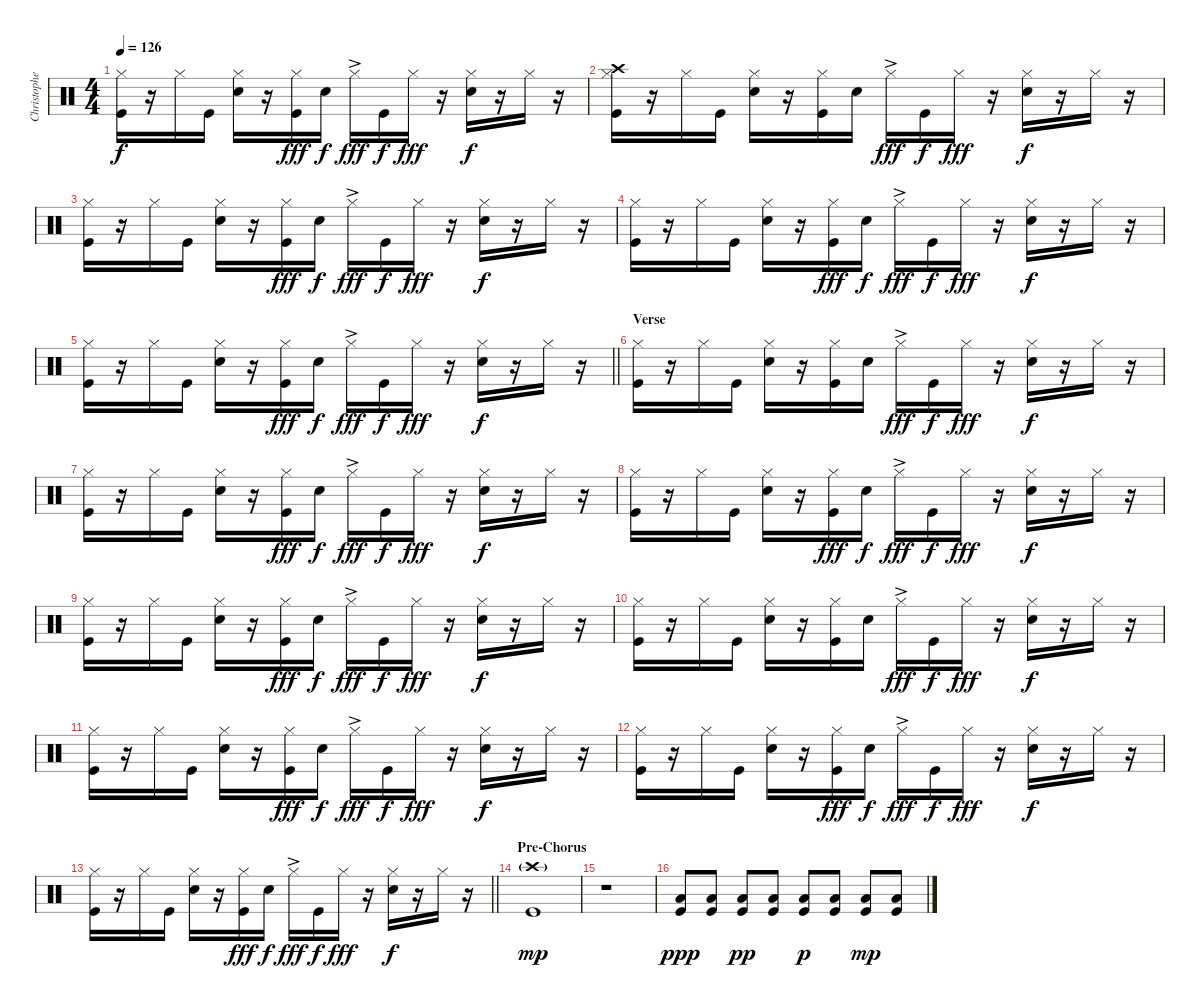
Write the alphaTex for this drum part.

\track ("Christopher - Drums" "Christophe") {instrument percussion}
\staff {score}
\articulation defaults
\ts (4 4)
\tempo 126
\clef neutral
\ks c
("Hi-Hat (closed)" "Kick (hit)").16{dy f} r.16 "Hi-Hat (closed)".16 "Kick (hit)".16 ("Hi-Hat (closed)" "Snare (hit) 2").16 r.16 ("Hi-Hat (closed)" "Kick (hit)").16{dy fff} "Snare (hit) 2".16{dy f} "Hi-Hat (closed)"{ac}.16{dy fff} "Kick (hit)".16{dy f} "Hi-Hat (closed)".16{dy fff} r.16 ("Hi-Hat (closed)" "Snare (hit) 2").16{dy f} r.16 "Hi-Hat (closed)".16 r.16 |
("Crash high (hit)" "Hi-Hat (closed)" "Kick (hit)").16 r.16 "Hi-Hat (closed)".16 "Kick (hit)".16 ("Hi-Hat (closed)" "Snare (hit) 2").16 r.16 ("Hi-Hat (closed)" "Kick (hit)").16 "Snare (hit) 2".16 "Hi-Hat (closed)"{ac}.16{dy fff} "Kick (hit)".16{dy f} "Hi-Hat (closed)".16{dy fff} r.16 ("Hi-Hat (closed)" "Snare (hit) 2").16{dy f} r.16 "Hi-Hat (closed)".16 r.16 |
("Hi-Hat (closed)" "Kick (hit)").16 r.16 "Hi-Hat (closed)".16 "Kick (hit)".16 ("Hi-Hat (closed)" "Snare (hit) 2").16 r.16 ("Hi-Hat (closed)" "Kick (hit)").16{dy fff} "Snare (hit) 2".16{dy f} "Hi-Hat (closed)"{ac}.16{dy fff} "Kick (hit)".16{dy f} "Hi-Hat (closed)".16{dy fff} r.16 ("Hi-Hat (closed)" "Snare (hit) 2").16{dy f} r.16 "Hi-Hat (closed)".16 r.16 |
("Hi-Hat (closed)" "Kick (hit)").16 r.16 "Hi-Hat (closed)".16 "Kick (hit)".16 ("Hi-Hat (closed)" "Snare (hit) 2").16 r.16 ("Hi-Hat (closed)" "Kick (hit)").16{dy fff} "Snare (hit) 2".16{dy f} "Hi-Hat (closed)"{ac}.16{dy fff} "Kick (hit)".16{dy f} "Hi-Hat (closed)".16{dy fff} r.16 ("Hi-Hat (closed)" "Snare (hit) 2").16{dy f} r.16 "Hi-Hat (closed)".16 r.16 |
\barLineRight lightlight
("Hi-Hat (closed)" "Kick (hit)").16 r.16 "Hi-Hat (closed)".16 "Kick (hit)".16 ("Hi-Hat (closed)" "Snare (hit) 2").16 r.16 ("Hi-Hat (closed)" "Kick (hit)").16{dy fff} "Snare (hit) 2".16{dy f} "Hi-Hat (closed)"{ac}.16{dy fff} "Kick (hit)".16{dy f} "Hi-Hat (closed)".16{dy fff} r.16 ("Hi-Hat (closed)" "Snare (hit) 2").16{dy f} r.16 "Hi-Hat (closed)".16 r.16 |
\section ("" "Verse")
("Hi-Hat (closed)" "Kick (hit)").16 r.16 "Hi-Hat (closed)".16 "Kick (hit)".16 ("Hi-Hat (closed)" "Snare (hit) 2").16 r.16 ("Hi-Hat (closed)" "Kick (hit)").16 "Snare (hit) 2".16 "Hi-Hat (closed)"{ac}.16{dy fff} "Kick (hit)".16{dy f} "Hi-Hat (closed)".16{dy fff} r.16 ("Hi-Hat (closed)" "Snare (hit) 2").16{dy f} r.16 "Hi-Hat (closed)".16 r.16 |
("Hi-Hat (closed)" "Kick (hit)").16 r.16 "Hi-Hat (closed)".16 "Kick (hit)".16 ("Hi-Hat (closed)" "Snare (hit) 2").16 r.16 ("Hi-Hat (closed)" "Kick (hit)").16{dy fff} "Snare (hit) 2".16{dy f} "Hi-Hat (closed)"{ac}.16{dy fff} "Kick (hit)".16{dy f} "Hi-Hat (closed)".16{dy fff} r.16 ("Hi-Hat (closed)" "Snare (hit) 2").16{dy f} r.16 "Hi-Hat (closed)".16 r.16 |
("Hi-Hat (closed)" "Kick (hit)").16 r.16 "Hi-Hat (closed)".16 "Kick (hit)".16 ("Hi-Hat (closed)" "Snare (hit) 2").16 r.16 ("Hi-Hat (closed)" "Kick (hit)").16{dy fff} "Snare (hit) 2".16{dy f} "Hi-Hat (closed)"{ac}.16{dy fff} "Kick (hit)".16{dy f} "Hi-Hat (closed)".16{dy fff} r.16 ("Hi-Hat (closed)" "Snare (hit) 2").16{dy f} r.16 "Hi-Hat (closed)".16 r.16 |
("Hi-Hat (closed)" "Kick (hit)").16 r.16 "Hi-Hat (closed)".16 "Kick (hit)".16 ("Hi-Hat (closed)" "Snare (hit) 2").16 r.16 ("Hi-Hat (closed)" "Kick (hit)").16{dy fff} "Snare (hit) 2".16{dy f} "Hi-Hat (closed)"{ac}.16{dy fff} "Kick (hit)".16{dy f} "Hi-Hat (closed)".16{dy fff} r.16 ("Hi-Hat (closed)" "Snare (hit) 2").16{dy f} r.16 "Hi-Hat (closed)".16 r.16 |
("Hi-Hat (closed)" "Kick (hit)").16 r.16 "Hi-Hat (closed)".16 "Kick (hit)".16 ("Hi-Hat (closed)" "Snare (hit) 2").16 r.16 ("Hi-Hat (closed)" "Kick (hit)").16 "Snare (hit) 2".16 "Hi-Hat (closed)"{ac}.16{dy fff} "Kick (hit)".16{dy f} "Hi-Hat (closed)".16{dy fff} r.16 ("Hi-Hat (closed)" "Snare (hit) 2").16{dy f} r.16 "Hi-Hat (closed)".16 r.16 |
("Hi-Hat (closed)" "Kick (hit)").16 r.16 "Hi-Hat (closed)".16 "Kick (hit)".16 ("Hi-Hat (closed)" "Snare (hit) 2").16 r.16 ("Hi-Hat (closed)" "Kick (hit)").16{dy fff} "Snare (hit) 2".16{dy f} "Hi-Hat (closed)"{ac}.16{dy fff} "Kick (hit)".16{dy f} "Hi-Hat (closed)".16{dy fff} r.16 ("Hi-Hat (closed)" "Snare (hit) 2").16{dy f} r.16 "Hi-Hat (closed)".16 r.16 |
("Hi-Hat (closed)" "Kick (hit)").16 r.16 "Hi-Hat (closed)".16 "Kick (hit)".16 ("Hi-Hat (closed)" "Snare (hit) 2").16 r.16 ("Hi-Hat (closed)" "Kick (hit)").16{dy fff} "Snare (hit) 2".16{dy f} "Hi-Hat (closed)"{ac}.16{dy fff} "Kick (hit)".16{dy f} "Hi-Hat (closed)".16{dy fff} r.16 ("Hi-Hat (closed)" "Snare (hit) 2").16{dy f} r.16 "Hi-Hat (closed)".16 r.16 |
\barLineRight lightlight
("Hi-Hat (closed)" "Kick (hit)").16 r.16 "Hi-Hat (closed)".16 "Kick (hit)".16 ("Hi-Hat (closed)" "Snare (hit) 2").16 r.16 ("Hi-Hat (closed)" "Kick (hit)").16{dy fff} "Snare (hit) 2".16{dy f} "Hi-Hat (closed)"{ac}.16{dy fff} "Kick (hit)".16{dy f} "Hi-Hat (closed)".16{dy fff} r.16 ("Hi-Hat (closed)" "Snare (hit) 2").16{dy f} r.16 "Hi-Hat (closed)".16 r.16 |
\section ("" "Pre-Chorus")
("Crash high (hit)"{g} "Kick (hit)").1{dy mp} |
r.1 |
("Low Floor Tom (hit)" "Kick (hit)").8{dy ppp} ("Low Floor Tom (hit)" "Kick (hit)").8 ("Low Floor Tom (hit)" "Kick (hit)").8{dy pp} ("Low Floor Tom (hit)" "Kick (hit)").8 ("Low Floor Tom (hit)" "Kick (hit)").8{dy p} ("Low Floor Tom (hit)" "Kick (hit)").8 ("Low Floor Tom (hit)" "Kick (hit)").8{dy mp} ("Low Floor Tom (hit)" "Kick (hit)").8
